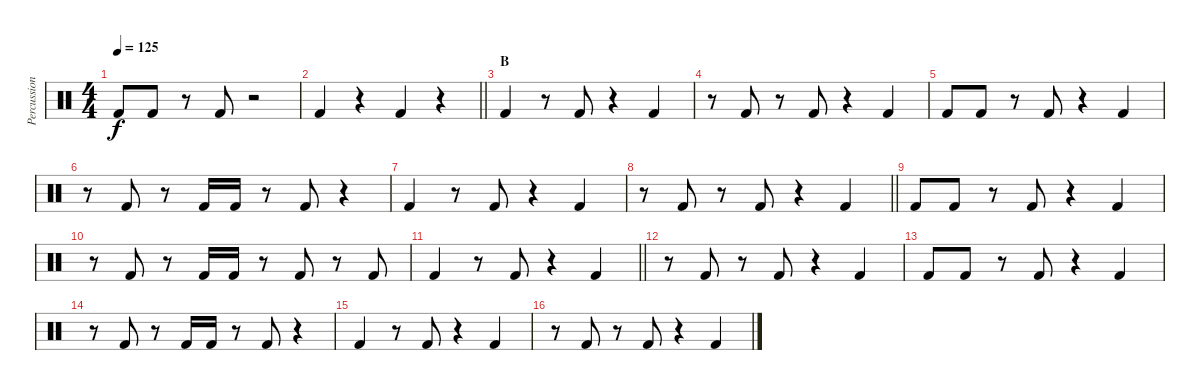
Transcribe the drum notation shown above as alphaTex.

\track ("Percussion (Bass Drum)" "Percussion") {instrument percussion}
\staff {score}
\articulation defaults
\ts (4 4)
\tempo 125
\clef neutral
\ks c "Kick (hit) 2".8{dy f} "Kick (hit) 2".8
r.8 "Kick (hit) 2".8 r.2 |
\barLineRight lightlight "Kick (hit) 2".4
r.4 "Kick (hit) 2".4 r.4 |
\section ("" "B")
"Kick (hit) 2".4 r.8 "Kick (hit) 2".8 r.4 "Kick (hit) 2".4 |
r.8 "Kick (hit) 2".8 r.8 "Kick (hit) 2".8 r.4 "Kick (hit) 2".4 |
"Kick (hit) 2".8 "Kick (hit) 2".8 r.8 "Kick (hit) 2".8 r.4 "Kick (hit) 2".4 |
r.8 "Kick (hit) 2".8 r.8 "Kick (hit) 2".16 "Kick (hit) 2".16 r.8 "Kick (hit) 2".8 r.4 |
"Kick (hit) 2".4 r.8 "Kick (hit) 2".8 r.4 "Kick (hit) 2".4 |
\barLineRight lightlight
r.8 "Kick (hit) 2".8 r.8 "Kick (hit) 2".8 r.4 "Kick (hit) 2".4 |
"Kick (hit) 2".8 "Kick (hit) 2".8 r.8 "Kick (hit) 2".8 r.4 "Kick (hit) 2".4 |
r.8 "Kick (hit) 2".8 r.8 "Kick (hit) 2".16 "Kick (hit) 2".16 r.8 "Kick (hit) 2".8 r.8 "Kick (hit) 2".8 |
\barLineRight lightlight "Kick (hit) 2".4
r.8 "Kick (hit) 2".8 r.4 "Kick (hit) 2".4 |
r.8 "Kick (hit) 2".8 r.8 "Kick (hit) 2".8 r.4 "Kick (hit) 2".4 |
"Kick (hit) 2".8 "Kick (hit) 2".8 r.8 "Kick (hit) 2".8 r.4 "Kick (hit) 2".4 |
r.8 "Kick (hit) 2".8 r.8 "Kick (hit) 2".16 "Kick (hit) 2".16 r.8 "Kick (hit) 2".8 r.4 |
"Kick (hit) 2".4 r.8 "Kick (hit) 2".8 r.4 "Kick (hit) 2".4 |
r.8 "Kick (hit) 2".8 r.8 "Kick (hit) 2".8 r.4 "Kick (hit) 2".4
